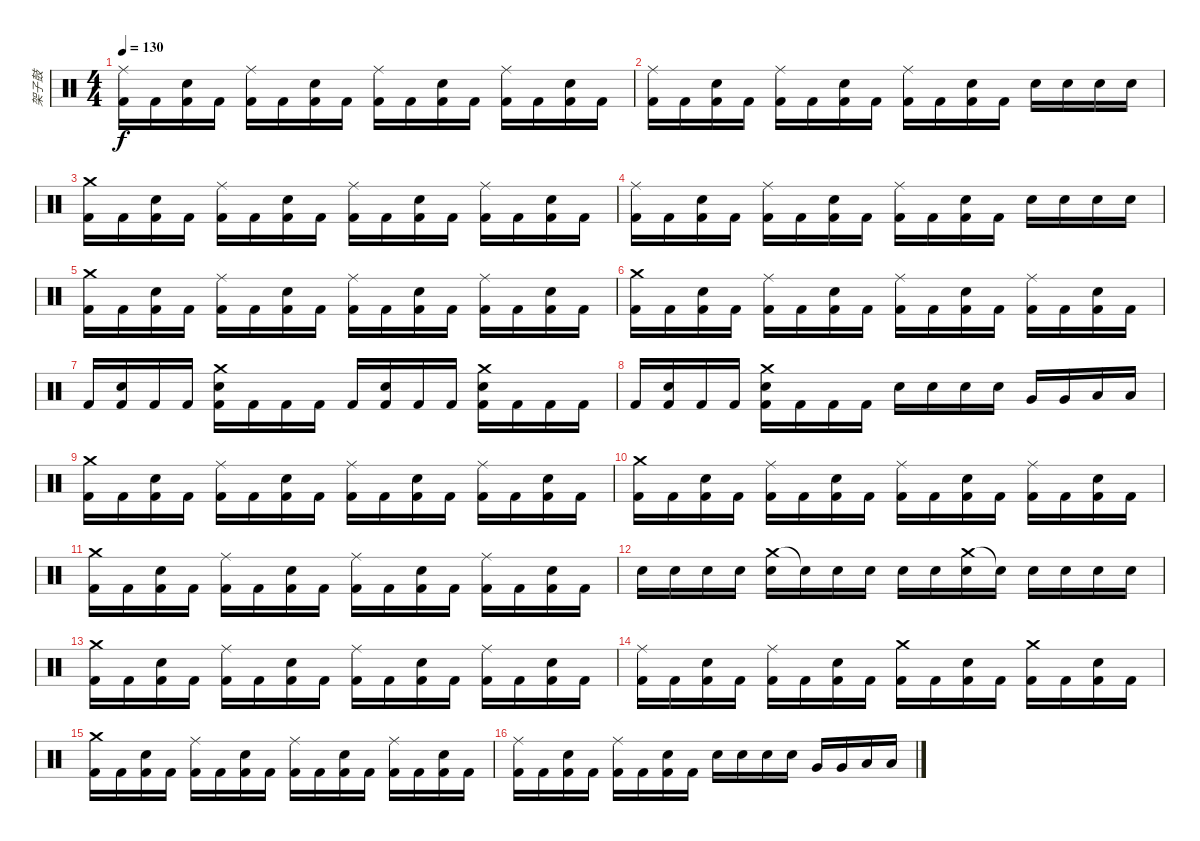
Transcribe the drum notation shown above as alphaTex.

\track ("架子鼓" "架子鼓") {instrument percussion}
\staff {score}
\articulation defaults
\ts (4 4)
\tempo 130
\clef neutral
\ks c
("Ride (middle)" "Kick (hit) 2").16{dy f} "Kick (hit) 2".16 ("Snare (hit) 2" "Kick (hit) 2").16 "Kick (hit) 2".16 ("Ride (middle)" "Kick (hit) 2").16 "Kick (hit) 2".16 ("Snare (hit) 2" "Kick (hit) 2").16 "Kick (hit) 2".16 ("Ride (middle)" "Kick (hit) 2").16 "Kick (hit) 2".16 ("Snare (hit) 2" "Kick (hit) 2").16 "Kick (hit) 2".16 ("Ride (middle)" "Kick (hit) 2").16 "Kick (hit) 2".16 ("Snare (hit) 2" "Kick (hit) 2").16 "Kick (hit) 2".16 |
("Ride (middle)" "Kick (hit) 2").16 "Kick (hit) 2".16 ("Snare (hit) 2" "Kick (hit) 2").16 "Kick (hit) 2".16 ("Ride (middle)" "Kick (hit) 2").16 "Kick (hit) 2".16 ("Snare (hit) 2" "Kick (hit) 2").16 "Kick (hit) 2".16 ("Ride (middle)" "Kick (hit) 2").16 "Kick (hit) 2".16 ("Snare (hit) 2" "Kick (hit) 2").16 "Kick (hit) 2".16 "Snare (hit) 2".16 "Snare (hit) 2".16 "Snare (hit) 2".16 "Snare (hit) 2".16 |
("Crash medium (hit)" "Kick (hit) 2").16 "Kick (hit) 2".16 ("Snare (hit) 2" "Kick (hit) 2").16 "Kick (hit) 2".16 ("Ride (middle)" "Kick (hit) 2").16 "Kick (hit) 2".16 ("Snare (hit) 2" "Kick (hit) 2").16 "Kick (hit) 2".16 ("Ride (middle)" "Kick (hit) 2").16 "Kick (hit) 2".16 ("Snare (hit) 2" "Kick (hit) 2").16 "Kick (hit) 2".16 ("Ride (middle)" "Kick (hit) 2").16 "Kick (hit) 2".16 ("Snare (hit) 2" "Kick (hit) 2").16 "Kick (hit) 2".16 |
("Ride (middle)" "Kick (hit) 2").16 "Kick (hit) 2".16 ("Snare (hit) 2" "Kick (hit) 2").16 "Kick (hit) 2".16 ("Ride (middle)" "Kick (hit) 2").16 "Kick (hit) 2".16 ("Snare (hit) 2" "Kick (hit) 2").16 "Kick (hit) 2".16 ("Ride (middle)" "Kick (hit) 2").16 "Kick (hit) 2".16 ("Snare (hit) 2" "Kick (hit) 2").16 "Kick (hit) 2".16 "Snare (hit) 2".16 "Snare (hit) 2".16 "Snare (hit) 2".16 "Snare (hit) 2".16 |
("Crash medium (hit)" "Kick (hit) 2").16 "Kick (hit) 2".16 ("Snare (hit) 2" "Kick (hit) 2").16 "Kick (hit) 2".16 ("Ride (middle)" "Kick (hit) 2").16 "Kick (hit) 2".16 ("Snare (hit) 2" "Kick (hit) 2").16 "Kick (hit) 2".16 ("Ride (middle)" "Kick (hit) 2").16 "Kick (hit) 2".16 ("Snare (hit) 2" "Kick (hit) 2").16 "Kick (hit) 2".16 ("Ride (middle)" "Kick (hit) 2").16 "Kick (hit) 2".16 ("Snare (hit) 2" "Kick (hit) 2").16 "Kick (hit) 2".16 |
("Crash medium (hit)" "Kick (hit) 2").16 "Kick (hit) 2".16 ("Snare (hit) 2" "Kick (hit) 2").16 "Kick (hit) 2".16 ("Ride (middle)" "Kick (hit) 2").16 "Kick (hit) 2".16 ("Snare (hit) 2" "Kick (hit) 2").16 "Kick (hit) 2".16 ("Ride (middle)" "Kick (hit) 2").16 "Kick (hit) 2".16 ("Snare (hit) 2" "Kick (hit) 2").16 "Kick (hit) 2".16 ("Ride (middle)" "Kick (hit) 2").16 "Kick (hit) 2".16 ("Snare (hit) 2" "Kick (hit) 2").16 "Kick (hit) 2".16 |
"Kick (hit) 2".16 ("Snare (hit) 2" "Kick (hit) 2").16 "Kick (hit) 2".16 "Kick (hit) 2".16 ("Crash medium (hit)" "Snare (hit) 2" "Kick (hit) 2").16 "Kick (hit) 2".16 "Kick (hit) 2".16 "Kick (hit) 2".16 "Kick (hit) 2".16 ("Snare (hit) 2" "Kick (hit) 2").16 "Kick (hit) 2".16 "Kick (hit) 2".16 ("Crash medium (hit)" "Snare (hit) 2" "Kick (hit) 2").16 "Kick (hit) 2".16 "Kick (hit) 2".16 "Kick (hit) 2".16 |
"Kick (hit) 2".16 ("Snare (hit) 2" "Kick (hit) 2").16 "Kick (hit) 2".16 "Kick (hit) 2".16 ("Crash medium (hit)" "Snare (hit) 2" "Kick (hit) 2").16 "Kick (hit) 2".16 "Kick (hit) 2".16 "Kick (hit) 2".16 "Snare (hit) 2".16 "Snare (hit) 2".16 "Snare (hit) 2".16 "Snare (hit) 2".16 "Very Low Tom (hit)".16 "Very Low Tom (hit)".16 "Low Floor Tom (hit)".16 "Low Floor Tom (hit)".16 |
("Crash medium (hit)" "Kick (hit) 2").16 "Kick (hit) 2".16 ("Snare (hit) 2" "Kick (hit) 2").16 "Kick (hit) 2".16 ("Ride (middle)" "Kick (hit) 2").16 "Kick (hit) 2".16 ("Snare (hit) 2" "Kick (hit) 2").16 "Kick (hit) 2".16 ("Ride (middle)" "Kick (hit) 2").16 "Kick (hit) 2".16 ("Snare (hit) 2" "Kick (hit) 2").16 "Kick (hit) 2".16 ("Ride (middle)" "Kick (hit) 2").16 "Kick (hit) 2".16 ("Snare (hit) 2" "Kick (hit) 2").16 "Kick (hit) 2".16 |
("Crash medium (hit)" "Kick (hit) 2").16 "Kick (hit) 2".16 ("Snare (hit) 2" "Kick (hit) 2").16 "Kick (hit) 2".16 ("Ride (middle)" "Kick (hit) 2").16 "Kick (hit) 2".16 ("Snare (hit) 2" "Kick (hit) 2").16 "Kick (hit) 2".16 ("Ride (middle)" "Kick (hit) 2").16 "Kick (hit) 2".16 ("Snare (hit) 2" "Kick (hit) 2").16 "Kick (hit) 2".16 ("Ride (middle)" "Kick (hit) 2").16 "Kick (hit) 2".16 ("Snare (hit) 2" "Kick (hit) 2").16 "Kick (hit) 2".16 |
("Crash medium (hit)" "Kick (hit) 2").16 "Kick (hit) 2".16 ("Snare (hit) 2" "Kick (hit) 2").16 "Kick (hit) 2".16 ("Ride (middle)" "Kick (hit) 2").16 "Kick (hit) 2".16 ("Snare (hit) 2" "Kick (hit) 2").16 "Kick (hit) 2".16 ("Ride (middle)" "Kick (hit) 2").16 "Kick (hit) 2".16 ("Snare (hit) 2" "Kick (hit) 2").16 "Kick (hit) 2".16 ("Ride (middle)" "Kick (hit) 2").16 "Kick (hit) 2".16 ("Snare (hit) 2" "Kick (hit) 2").16 "Kick (hit) 2".16 |
"Snare (hit) 2".16 "Snare (hit) 2".16 "Snare (hit) 2".16 "Snare (hit) 2".16 ("Crash medium (hit)" "Snare (hit) 2").16 "Snare (hit)"{t}.16 "Snare (hit) 2".16 "Snare (hit) 2".16 "Snare (hit) 2".16 "Snare (hit) 2".16 ("Crash medium (hit)" "Snare (hit) 2").16 "Snare (hit)"{t}.16 "Snare (hit) 2".16 "Snare (hit) 2".16 "Snare (hit) 2".16 "Snare (hit) 2".16 |
("Crash medium (hit)" "Kick (hit) 2").16 "Kick (hit) 2".16 ("Snare (hit) 2" "Kick (hit) 2").16 "Kick (hit) 2".16 ("Ride (middle)" "Kick (hit) 2").16 "Kick (hit) 2".16 ("Snare (hit) 2" "Kick (hit) 2").16 "Kick (hit) 2".16 ("Ride (middle)" "Kick (hit) 2").16 "Kick (hit) 2".16 ("Snare (hit) 2" "Kick (hit) 2").16 "Kick (hit) 2".16 ("Ride (middle)" "Kick (hit) 2").16 "Kick (hit) 2".16 ("Snare (hit) 2" "Kick (hit) 2").16 "Kick (hit) 2".16 |
("Ride (middle)" "Kick (hit) 2").16 "Kick (hit) 2".16 ("Snare (hit) 2" "Kick (hit) 2").16 "Kick (hit) 2".16 ("Ride (middle)" "Kick (hit) 2").16 "Kick (hit) 2".16 ("Snare (hit) 2" "Kick (hit) 2").16 "Kick (hit) 2".16 ("Crash medium (hit)" "Kick (hit) 2").16 "Kick (hit) 2".16 ("Snare (hit) 2" "Kick (hit) 2").16 "Kick (hit) 2".16 ("Crash medium (hit)" "Kick (hit) 2").16 "Kick (hit) 2".16 ("Snare (hit) 2" "Kick (hit) 2").16 "Kick (hit) 2".16 |
("Crash medium (hit)" "Kick (hit) 2").16 "Kick (hit) 2".16 ("Snare (hit) 2" "Kick (hit) 2").16 "Kick (hit) 2".16 ("Ride (middle)" "Kick (hit) 2").16 "Kick (hit) 2".16 ("Snare (hit) 2" "Kick (hit) 2").16 "Kick (hit) 2".16 ("Ride (middle)" "Kick (hit) 2").16 "Kick (hit) 2".16 ("Snare (hit) 2" "Kick (hit) 2").16 "Kick (hit) 2".16 ("Ride (middle)" "Kick (hit) 2").16 "Kick (hit) 2".16 ("Snare (hit) 2" "Kick (hit) 2").16 "Kick (hit) 2".16 |
("Ride (middle)" "Kick (hit) 2").16 "Kick (hit) 2".16 ("Snare (hit) 2" "Kick (hit) 2").16 "Kick (hit) 2".16 ("Ride (middle)" "Kick (hit) 2").16 "Kick (hit) 2".16 ("Snare (hit) 2" "Kick (hit) 2").16 "Kick (hit) 2".16 "Snare (hit) 2".16 "Snare (hit) 2".16 "Snare (hit) 2".16 "Snare (hit) 2".16 "Very Low Tom (hit)".16 "Very Low Tom (hit)".16 "Low Floor Tom (hit)".16 "Low Floor Tom (hit)".16
